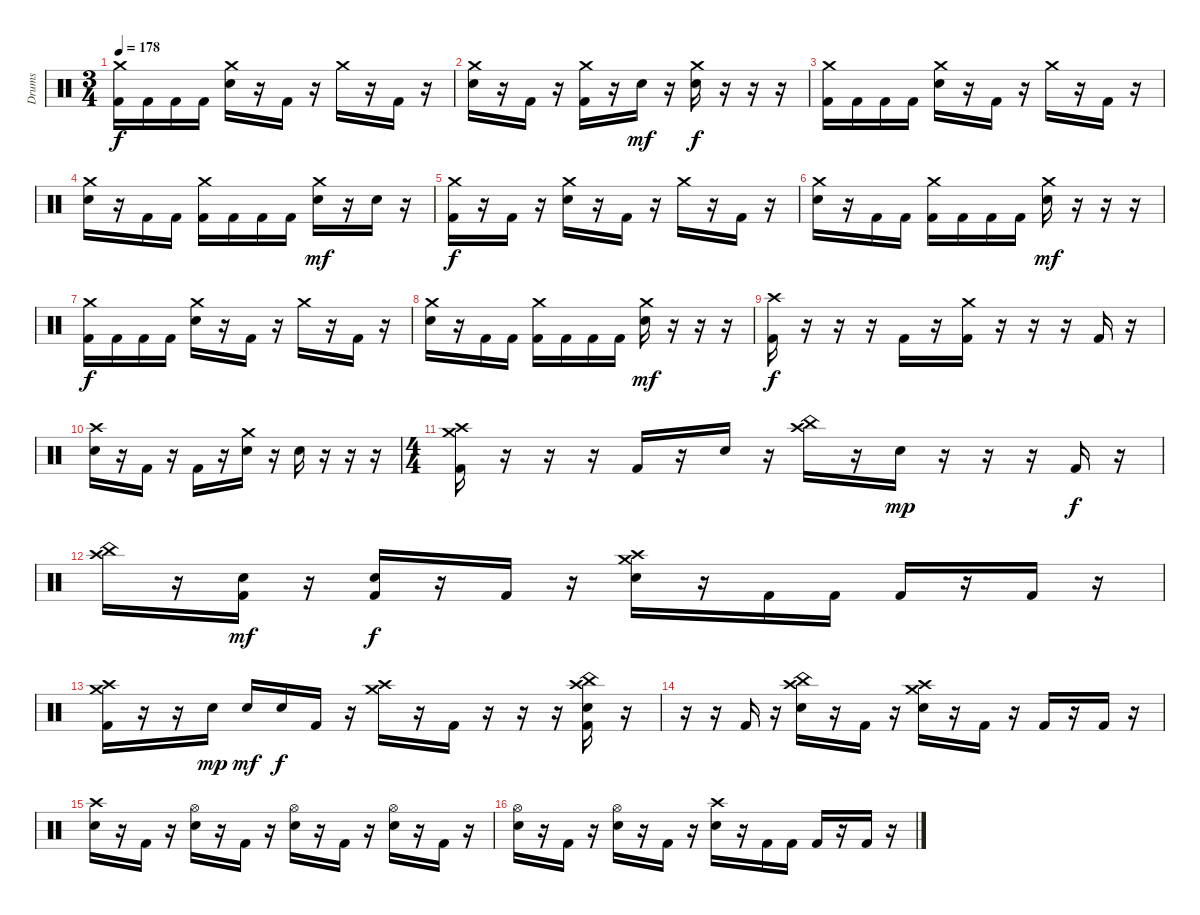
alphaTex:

\track ("Drums" "Drums") {instrument percussion}
\staff {score}
\articulation defaults
\ts (3 4)
\tempo 178
\clef neutral
\ks c
("Crash medium (hit)" "Kick (hit) 2").16{dy f} "Kick (hit) 2".16 "Kick (hit) 2".16 "Kick (hit) 2".16 ("Crash medium (hit)" "Electric Snare (hit)").16 r.16 "Kick (hit) 2".16 r.16 "Crash medium (hit)".16 r.16 "Kick (hit) 2".16 r.16 |
("Crash medium (hit)" "Electric Snare (hit)").16 r.16 "Kick (hit) 2".16 r.16 ("Crash medium (hit)" "Kick (hit) 2").16 r.16 "Electric Snare (hit)".16{dy mf} r.16 ("Crash medium (hit)" "Electric Snare (hit)").16{dy f} r.16 r.16 r.16 |
("Crash medium (hit)" "Kick (hit) 2").16 "Kick (hit) 2".16 "Kick (hit) 2".16 "Kick (hit) 2".16 ("Crash medium (hit)" "Electric Snare (hit)").16 r.16 "Kick (hit) 2".16 r.16 "Crash medium (hit)".16 r.16 "Kick (hit) 2".16 r.16 |
("Crash medium (hit)" "Electric Snare (hit)").16 r.16 "Kick (hit) 2".16 "Kick (hit) 2".16 ("Crash medium (hit)" "Kick (hit) 2").16 "Kick (hit) 2".16 "Kick (hit) 2".16 "Kick (hit) 2".16 ("Crash medium (hit)" "Electric Snare (hit)").16{dy mf} r.16 "Electric Snare (hit)".16 r.16 |
("Crash medium (hit)" "Kick (hit) 2").16{dy f} r.16 "Kick (hit) 2".16 r.16 ("Crash medium (hit)" "Electric Snare (hit)").16 r.16 "Kick (hit) 2".16 r.16 "Crash medium (hit)".16 r.16 "Kick (hit) 2".16 r.16 |
("Crash medium (hit)" "Electric Snare (hit)").16 r.16 "Kick (hit) 2".16 "Kick (hit) 2".16 ("Crash medium (hit)" "Kick (hit) 2").16 "Kick (hit) 2".16 "Kick (hit) 2".16 "Kick (hit) 2".16 ("Crash medium (hit)" "Electric Snare (hit)").16{dy mf} r.16 r.16 r.16 |
("Crash medium (hit)" "Kick (hit) 2").16{dy f} "Kick (hit) 2".16 "Kick (hit) 2".16 "Kick (hit) 2".16 ("Crash medium (hit)" "Electric Snare (hit)").16 r.16 "Kick (hit) 2".16 r.16 "Crash medium (hit)".16 r.16 "Kick (hit) 2".16 r.16 |
("Crash medium (hit)" "Electric Snare (hit)").16 r.16 "Kick (hit) 2".16 "Kick (hit) 2".16 ("Crash medium (hit)" "Kick (hit) 2").16 "Kick (hit) 2".16 "Kick (hit) 2".16 "Kick (hit) 2".16 ("Crash medium (hit)" "Electric Snare (hit)").16{dy mf} r.16 r.16 r.16 |
("Crash high (hit)" "Kick (hit) 2").16{dy f} r.16 r.16 r.16 "Kick (hit) 2".16 r.16 ("Crash medium (hit)" "Kick (hit) 2").16 r.16 r.16 r.16 "Kick (hit) 2".16 r.16 |
("Crash high (hit)" "Electric Snare (hit)").16 r.16 "Kick (hit) 2".16 r.16 "Kick (hit) 2".16 r.16 ("Crash medium (hit)" "Electric Snare (hit)").16 r.16 "Electric Snare (hit)".16 r.16 r.16 r.16 |
\ts (4 4)
("Crash high (hit)" "Crash medium (hit)" "Kick (hit) 2").16 r.16 r.16 r.16 "Kick (hit) 2".16 r.16 "Electric Snare (hit)".16 r.16 ("Crash high (hit)" "China (hit)").16 r.16 "Electric Snare (hit)".16{dy mp} r.16 r.16 r.16 "Kick (hit) 2".16{dy f} r.16 |
("Crash high (hit)" "China (hit)").16 r.16 ("Electric Snare (hit)" "Kick (hit) 2").16{dy mf} r.16 ("Electric Snare (hit)" "Kick (hit) 2").16{dy f} r.16 "Kick (hit) 2".16 r.16 ("Crash high (hit)" "Crash medium (hit)" "Electric Snare (hit)").16 r.16 "Kick (hit) 2".16 "Kick (hit) 2".16 "Kick (hit) 2".16 r.16 "Kick (hit) 2".16 r.16 |
("Crash high (hit)" "Crash medium (hit)" "Kick (hit) 2").16 r.16 r.16 "Electric Snare (hit)".16{dy mp} "Electric Snare (hit)".16{dy mf} "Electric Snare (hit)".16{dy f} "Kick (hit) 2".16 r.16 ("Crash high (hit)" "Crash medium (hit)").16 r.16 "Kick (hit) 2".16 r.16 r.16 r.16 ("Crash high (hit)" "China (hit)" "Electric Snare (hit)" "Kick (hit) 2").16 r.16 |
r.16 r.16 "Kick (hit) 2".16 r.16 ("Crash high (hit)" "China (hit)" "Electric Snare (hit)").16 r.16 "Kick (hit) 2".16 r.16 ("Crash high (hit)" "Crash medium (hit)" "Electric Snare (hit)").16 r.16 "Kick (hit) 2".16 r.16 "Kick (hit) 2".16 r.16 "Kick (hit) 2".16 r.16 |
("Crash high (hit)" "Electric Snare (hit)").16 r.16 "Kick (hit) 2".16 r.16 ("Hi-Hat (open)" "Electric Snare (hit)").16 r.16 "Kick (hit) 2".16 r.16 ("Hi-Hat (open)" "Electric Snare (hit)").16 r.16 "Kick (hit) 2".16 r.16 ("Hi-Hat (open)" "Electric Snare (hit)").16 r.16 "Kick (hit) 2".16 r.16 |
("Hi-Hat (open)" "Electric Snare (hit)").16 r.16 "Kick (hit) 2".16 r.16 ("Hi-Hat (open)" "Electric Snare (hit)").16 r.16 "Kick (hit) 2".16 r.16 ("Crash high (hit)" "Electric Snare (hit)").16 r.16 "Kick (hit) 2".16 "Kick (hit) 2".16 "Kick (hit) 2".16 r.16 "Kick (hit) 2".16 r.16
